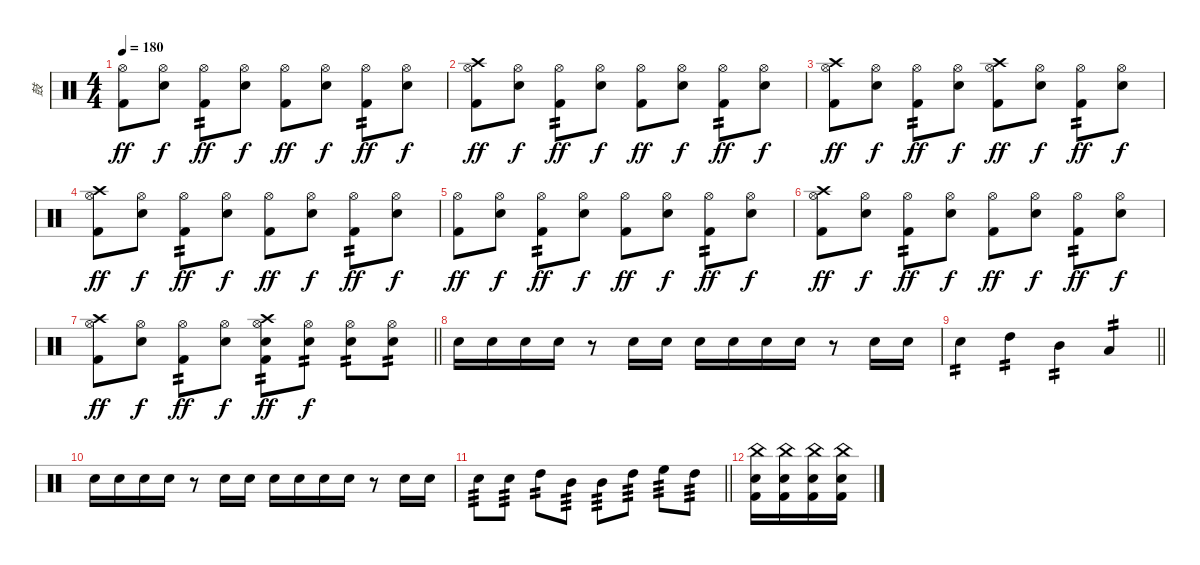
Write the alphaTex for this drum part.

\track ("鼓" "鼓") {instrument percussion}
\staff {score}
\articulation defaults
\ts (4 4)
\tempo 180
\clef neutral
\ks c
("Hi-Hat (open)" "Kick (hit) 2").8{dy ff} ("Hi-Hat (open)" "Snare (hit) 2").8{dy f} ("Hi-Hat (open)" "Kick (hit) 2").8{tp 2 dy ff} ("Hi-Hat (open)" "Snare (hit) 2").8{dy f} ("Hi-Hat (open)" "Kick (hit) 2").8{dy ff} ("Hi-Hat (open)" "Snare (hit) 2").8{dy f} ("Hi-Hat (open)" "Kick (hit) 2").8{tp 2 dy ff} ("Hi-Hat (open)" "Snare (hit) 2").8{dy f} |
("Crash high (hit)" "Hi-Hat (open)" "Kick (hit) 2").8{dy ff} ("Hi-Hat (open)" "Snare (hit) 2").8{dy f} ("Hi-Hat (open)" "Kick (hit) 2").8{tp 2 dy ff} ("Hi-Hat (open)" "Snare (hit) 2").8{dy f} ("Hi-Hat (open)" "Kick (hit) 2").8{dy ff} ("Hi-Hat (open)" "Snare (hit) 2").8{dy f} ("Hi-Hat (open)" "Kick (hit) 2").8{tp 2 dy ff} ("Hi-Hat (open)" "Snare (hit) 2").8{dy f} |
("Crash high (hit)" "Hi-Hat (open)" "Kick (hit) 2").8{dy ff} ("Hi-Hat (open)" "Snare (hit) 2").8{dy f} ("Hi-Hat (open)" "Kick (hit) 2").8{tp 2 dy ff} ("Hi-Hat (open)" "Snare (hit) 2").8{dy f} ("Crash high (hit)" "Hi-Hat (open)" "Kick (hit) 2").8{dy ff} ("Hi-Hat (open)" "Snare (hit) 2").8{dy f} ("Hi-Hat (open)" "Kick (hit) 2").8{tp 2 dy ff} ("Hi-Hat (open)" "Snare (hit) 2").8{dy f} |
("Crash high (hit)" "Hi-Hat (open)" "Kick (hit) 2").8{dy ff} ("Hi-Hat (open)" "Snare (hit) 2").8{dy f} ("Hi-Hat (open)" "Kick (hit) 2").8{tp 2 dy ff} ("Hi-Hat (open)" "Snare (hit) 2").8{dy f} ("Hi-Hat (open)" "Kick (hit) 2").8{dy ff} ("Hi-Hat (open)" "Snare (hit) 2").8{dy f} ("Hi-Hat (open)" "Kick (hit) 2").8{tp 2 dy ff} ("Hi-Hat (open)" "Snare (hit) 2").8{dy f} |
("Hi-Hat (open)" "Kick (hit) 2").8{dy ff} ("Hi-Hat (open)" "Snare (hit) 2").8{dy f} ("Hi-Hat (open)" "Kick (hit) 2").8{tp 2 dy ff} ("Hi-Hat (open)" "Snare (hit) 2").8{dy f} ("Hi-Hat (open)" "Kick (hit) 2").8{dy ff} ("Hi-Hat (open)" "Snare (hit) 2").8{dy f} ("Hi-Hat (open)" "Kick (hit) 2").8{tp 2 dy ff} ("Hi-Hat (open)" "Snare (hit) 2").8{dy f} |
("Crash high (hit)" "Hi-Hat (open)" "Kick (hit) 2").8{dy ff} ("Hi-Hat (open)" "Snare (hit) 2").8{dy f} ("Hi-Hat (open)" "Kick (hit) 2").8{tp 2 dy ff} ("Hi-Hat (open)" "Snare (hit) 2").8{dy f} ("Hi-Hat (open)" "Kick (hit) 2").8{dy ff} ("Hi-Hat (open)" "Snare (hit) 2").8{dy f} ("Hi-Hat (open)" "Kick (hit) 2").8{tp 2 dy ff} ("Hi-Hat (open)" "Snare (hit) 2").8{dy f} |
\barLineRight lightlight
("Crash high (hit)" "Hi-Hat (open)" "Kick (hit) 2").8{dy ff} ("Hi-Hat (open)" "Snare (hit) 2").8{dy f} ("Hi-Hat (open)" "Kick (hit) 2").8{tp 2 dy ff} ("Hi-Hat (open)" "Snare (hit) 2").8{dy f} ("Crash high (hit)" "Hi-Hat (open)" "Snare (hit) 2" "Kick (hit) 2").8{tp 2 dy ff} ("Hi-Hat (open)" "Snare (hit) 2").8{tp 2 dy f} ("Hi-Hat (open)" "Snare (hit) 2").8{tp 2} ("Hi-Hat (open)" "Snare (hit) 2").8{tp 2} |
"Snare (hit) 2".16 "Snare (hit) 2".16 "Snare (hit) 2".16 "Snare (hit) 2".16 r.8 "Snare (hit) 2".16 "Snare (hit) 2".16 "Snare (hit) 2".16 "Snare (hit) 2".16 "Snare (hit) 2".16 "Snare (hit) 2".16 r.8 "Snare (hit) 2".16 "Snare (hit) 2".16 |
\barLineRight lightlight "Snare (hit) 2".4{tp 2} "High Tom (hit)".4{tp 2} "Mid Tom (hit)".4{tp 2} "Low Tom (hit)".4{tp 2}
|
"Snare (hit) 2".16 "Snare (hit) 2".16 "Snare (hit) 2".16 "Snare (hit) 2".16 r.8 "Snare (hit) 2".16 "Snare (hit) 2".16 "Snare (hit) 2".16 "Snare (hit) 2".16 "Snare (hit) 2".16 "Snare (hit) 2".16 r.8 "Snare (hit) 2".16 "Snare (hit) 2".16 |
\barLineRight lightlight "Snare (hit) 2".8{tp 3} "Snare (hit) 2".8{tp 3} "High Tom (hit)".8{tp 2} "Mid Tom (hit)".8{tp 3} "Mid Tom (hit)".8{tp 3} "High Tom (hit)".8{tp 3} "High Floor Tom (hit)".8{tp 3} "High Tom (hit)".8{tp 3}
|
("China (hit)" "Snare (hit) 2" "Kick (hit) 2").16 ("China (hit)" "Snare (hit) 2" "Kick (hit) 2").16 ("China (hit)" "Snare (hit) 2" "Kick (hit) 2").16 ("China (hit)" "Snare (hit) 2" "Kick (hit) 2").16
